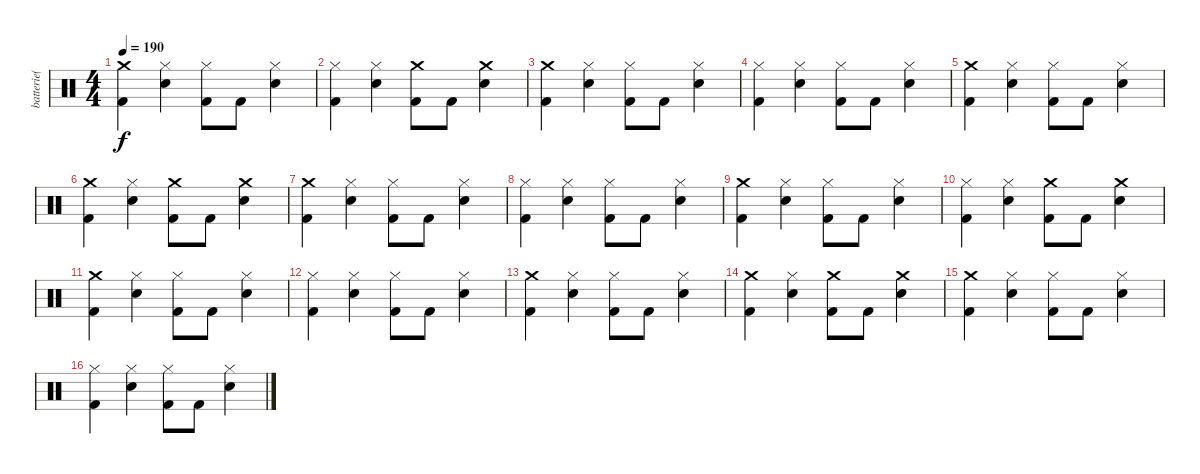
\track ("batterie( Byron McMackin )" "batterie( ") {instrument percussion}
\staff {score}
\articulation defaults
\ts (4 4)
\tempo 190
\clef neutral
\ks c
("Crash medium (hit)" "Kick (hit) 2").4{dy f} ("Hi-Hat (closed)" "Snare (hit) 2").4 ("Hi-Hat (closed)" "Kick (hit) 2").8 "Kick (hit) 2".8 ("Hi-Hat (closed)" "Snare (hit) 2").4 |
("Hi-Hat (closed)" "Kick (hit) 2").4 ("Hi-Hat (closed)" "Snare (hit) 2").4 ("Crash medium (hit)" "Kick (hit) 2").8 "Kick (hit) 2".8 ("Crash medium (hit)" "Snare (hit) 2").4 |
("Crash medium (hit)" "Kick (hit) 2").4 ("Hi-Hat (closed)" "Snare (hit) 2").4 ("Hi-Hat (closed)" "Kick (hit) 2").8 "Kick (hit) 2".8 ("Hi-Hat (closed)" "Snare (hit) 2").4 |
("Hi-Hat (closed)" "Kick (hit) 2").4 ("Hi-Hat (closed)" "Snare (hit) 2").4 ("Hi-Hat (closed)" "Kick (hit) 2").8 "Kick (hit) 2".8 ("Hi-Hat (closed)" "Snare (hit) 2").4 |
("Crash medium (hit)" "Kick (hit) 2").4 ("Hi-Hat (closed)" "Snare (hit) 2").4 ("Hi-Hat (closed)" "Kick (hit) 2").8 "Kick (hit) 2".8 ("Hi-Hat (closed)" "Snare (hit) 2").4 |
("Crash medium (hit)" "Kick (hit) 2").4 ("Hi-Hat (closed)" "Snare (hit) 2").4 ("Crash medium (hit)" "Kick (hit) 2").8 "Kick (hit) 2".8 ("Crash medium (hit)" "Snare (hit) 2").4 |
("Crash medium (hit)" "Kick (hit) 2").4 ("Hi-Hat (closed)" "Snare (hit) 2").4 ("Hi-Hat (closed)" "Kick (hit) 2").8 "Kick (hit) 2".8 ("Hi-Hat (closed)" "Snare (hit) 2").4 |
("Hi-Hat (closed)" "Kick (hit) 2").4 ("Hi-Hat (closed)" "Snare (hit) 2").4 ("Hi-Hat (closed)" "Kick (hit) 2").8 "Kick (hit) 2".8 ("Hi-Hat (closed)" "Snare (hit) 2").4 |
("Crash medium (hit)" "Kick (hit) 2").4 ("Hi-Hat (closed)" "Snare (hit) 2").4 ("Hi-Hat (closed)" "Kick (hit) 2").8 "Kick (hit) 2".8 ("Hi-Hat (closed)" "Snare (hit) 2").4 |
("Hi-Hat (closed)" "Kick (hit) 2").4 ("Hi-Hat (closed)" "Snare (hit) 2").4 ("Crash medium (hit)" "Kick (hit) 2").8 "Kick (hit) 2".8 ("Crash medium (hit)" "Snare (hit) 2").4 |
("Crash medium (hit)" "Kick (hit) 2").4 ("Hi-Hat (closed)" "Snare (hit) 2").4 ("Hi-Hat (closed)" "Kick (hit) 2").8 "Kick (hit) 2".8 ("Hi-Hat (closed)" "Snare (hit) 2").4 |
("Hi-Hat (closed)" "Kick (hit) 2").4 ("Hi-Hat (closed)" "Snare (hit) 2").4 ("Hi-Hat (closed)" "Kick (hit) 2").8 "Kick (hit) 2".8 ("Hi-Hat (closed)" "Snare (hit) 2").4 |
("Crash medium (hit)" "Kick (hit) 2").4 ("Hi-Hat (closed)" "Snare (hit) 2").4 ("Hi-Hat (closed)" "Kick (hit) 2").8 "Kick (hit) 2".8 ("Hi-Hat (closed)" "Snare (hit) 2").4 |
("Crash medium (hit)" "Kick (hit) 2").4 ("Hi-Hat (closed)" "Snare (hit) 2").4 ("Crash medium (hit)" "Kick (hit) 2").8 "Kick (hit) 2".8 ("Crash medium (hit)" "Snare (hit) 2").4 |
("Crash medium (hit)" "Kick (hit) 2").4 ("Hi-Hat (closed)" "Snare (hit) 2").4 ("Hi-Hat (closed)" "Kick (hit) 2").8 "Kick (hit) 2".8 ("Hi-Hat (closed)" "Snare (hit) 2").4 |
("Hi-Hat (closed)" "Kick (hit) 2").4 ("Hi-Hat (closed)" "Snare (hit) 2").4 ("Hi-Hat (closed)" "Kick (hit) 2").8 "Kick (hit) 2".8 ("Hi-Hat (closed)" "Snare (hit) 2").4
